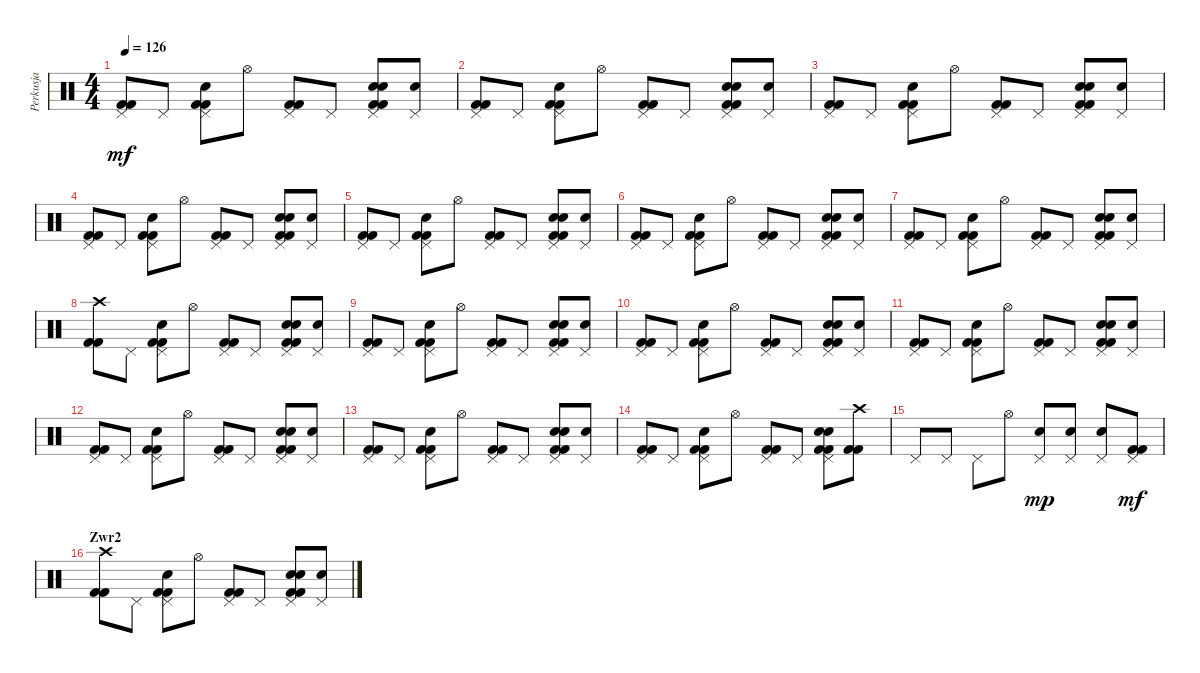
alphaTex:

\track ("Perkusja" "Perkusja") {instrument percussion}
\staff {score}
\articulation defaults
\ts (4 4)
\tempo 126
\clef neutral
\ks c
("Pedal Hi-Hat (hit)" "Kick (hit) 2" "Kick (hit) 2").8{dy mf} "Pedal Hi-Hat (hit)".8 ("Pedal Hi-Hat (hit)" "Snare (hit) 2" "Kick (hit) 2" "Kick (hit) 2").8 "Hi-Hat (open)".8 ("Pedal Hi-Hat (hit)" "Kick (hit) 2" "Kick (hit) 2").8 "Pedal Hi-Hat (hit)".8 ("Pedal Hi-Hat (hit)" "Hand Clap (hit)" "Snare (hit) 2" "Kick (hit) 2" "Kick (hit) 2").8 ("Pedal Hi-Hat (hit)" "Hand Clap (hit)").8 |
("Pedal Hi-Hat (hit)" "Kick (hit) 2" "Kick (hit) 2").8 "Pedal Hi-Hat (hit)".8 ("Pedal Hi-Hat (hit)" "Snare (hit) 2" "Kick (hit) 2" "Kick (hit) 2").8 "Hi-Hat (open)".8 ("Pedal Hi-Hat (hit)" "Kick (hit) 2" "Kick (hit) 2").8 "Pedal Hi-Hat (hit)".8 ("Pedal Hi-Hat (hit)" "Hand Clap (hit)" "Snare (hit) 2" "Kick (hit) 2" "Kick (hit) 2").8 ("Pedal Hi-Hat (hit)" "Hand Clap (hit)").8 |
("Pedal Hi-Hat (hit)" "Kick (hit) 2" "Kick (hit) 2").8 "Pedal Hi-Hat (hit)".8 ("Pedal Hi-Hat (hit)" "Snare (hit) 2" "Kick (hit) 2" "Kick (hit) 2").8 "Hi-Hat (open)".8 ("Pedal Hi-Hat (hit)" "Kick (hit) 2" "Kick (hit) 2").8 "Pedal Hi-Hat (hit)".8 ("Pedal Hi-Hat (hit)" "Hand Clap (hit)" "Snare (hit) 2" "Kick (hit) 2" "Kick (hit) 2").8 ("Pedal Hi-Hat (hit)" "Hand Clap (hit)").8 |
("Pedal Hi-Hat (hit)" "Kick (hit) 2" "Kick (hit) 2").8 "Pedal Hi-Hat (hit)".8 ("Pedal Hi-Hat (hit)" "Snare (hit) 2" "Kick (hit) 2" "Kick (hit) 2").8 "Hi-Hat (open)".8 ("Pedal Hi-Hat (hit)" "Kick (hit) 2" "Kick (hit) 2").8 "Pedal Hi-Hat (hit)".8 ("Pedal Hi-Hat (hit)" "Hand Clap (hit)" "Snare (hit) 2" "Kick (hit) 2" "Kick (hit) 2").8 ("Pedal Hi-Hat (hit)" "Hand Clap (hit)").8 |
("Pedal Hi-Hat (hit)" "Kick (hit) 2" "Kick (hit) 2").8 "Pedal Hi-Hat (hit)".8 ("Pedal Hi-Hat (hit)" "Snare (hit) 2" "Kick (hit) 2" "Kick (hit) 2").8 "Hi-Hat (open)".8 ("Pedal Hi-Hat (hit)" "Kick (hit) 2" "Kick (hit) 2").8 "Pedal Hi-Hat (hit)".8 ("Pedal Hi-Hat (hit)" "Hand Clap (hit)" "Snare (hit) 2" "Kick (hit) 2" "Kick (hit) 2").8 ("Pedal Hi-Hat (hit)" "Hand Clap (hit)").8 |
("Pedal Hi-Hat (hit)" "Kick (hit) 2" "Kick (hit) 2").8 "Pedal Hi-Hat (hit)".8 ("Pedal Hi-Hat (hit)" "Snare (hit) 2" "Kick (hit) 2" "Kick (hit) 2").8 "Hi-Hat (open)".8 ("Pedal Hi-Hat (hit)" "Kick (hit) 2" "Kick (hit) 2").8 "Pedal Hi-Hat (hit)".8 ("Pedal Hi-Hat (hit)" "Hand Clap (hit)" "Snare (hit) 2" "Kick (hit) 2" "Kick (hit) 2").8 ("Pedal Hi-Hat (hit)" "Hand Clap (hit)").8 |
("Pedal Hi-Hat (hit)" "Kick (hit) 2" "Kick (hit) 2").8 "Pedal Hi-Hat (hit)".8 ("Pedal Hi-Hat (hit)" "Snare (hit) 2" "Kick (hit) 2" "Kick (hit) 2").8 "Hi-Hat (open)".8 ("Pedal Hi-Hat (hit)" "Kick (hit) 2" "Kick (hit) 2").8 "Pedal Hi-Hat (hit)".8 ("Pedal Hi-Hat (hit)" "Hand Clap (hit)" "Snare (hit) 2" "Kick (hit) 2" "Kick (hit) 2").8 ("Pedal Hi-Hat (hit)" "Hand Clap (hit)").8 |
("Crash high (hit)" "Kick (hit) 2" "Kick (hit) 2").8 "Pedal Hi-Hat (hit)".8 ("Pedal Hi-Hat (hit)" "Snare (hit) 2" "Kick (hit) 2" "Kick (hit) 2").8 "Hi-Hat (open)".8 ("Pedal Hi-Hat (hit)" "Kick (hit) 2" "Kick (hit) 2").8 "Pedal Hi-Hat (hit)".8 ("Pedal Hi-Hat (hit)" "Hand Clap (hit)" "Snare (hit) 2" "Kick (hit) 2" "Kick (hit) 2").8 ("Pedal Hi-Hat (hit)" "Hand Clap (hit)").8 |
("Pedal Hi-Hat (hit)" "Kick (hit) 2" "Kick (hit) 2").8 "Pedal Hi-Hat (hit)".8 ("Pedal Hi-Hat (hit)" "Snare (hit) 2" "Kick (hit) 2" "Kick (hit) 2").8 "Hi-Hat (open)".8 ("Pedal Hi-Hat (hit)" "Kick (hit) 2" "Kick (hit) 2").8 "Pedal Hi-Hat (hit)".8 ("Pedal Hi-Hat (hit)" "Hand Clap (hit)" "Snare (hit) 2" "Kick (hit) 2" "Kick (hit) 2").8 ("Pedal Hi-Hat (hit)" "Hand Clap (hit)").8 |
("Pedal Hi-Hat (hit)" "Kick (hit) 2" "Kick (hit) 2").8 "Pedal Hi-Hat (hit)".8 ("Pedal Hi-Hat (hit)" "Snare (hit) 2" "Kick (hit) 2" "Kick (hit) 2").8 "Hi-Hat (open)".8 ("Pedal Hi-Hat (hit)" "Kick (hit) 2" "Kick (hit) 2").8 "Pedal Hi-Hat (hit)".8 ("Pedal Hi-Hat (hit)" "Hand Clap (hit)" "Snare (hit) 2" "Kick (hit) 2" "Kick (hit) 2").8 ("Pedal Hi-Hat (hit)" "Hand Clap (hit)").8 |
("Pedal Hi-Hat (hit)" "Kick (hit) 2" "Kick (hit) 2").8 "Pedal Hi-Hat (hit)".8 ("Pedal Hi-Hat (hit)" "Snare (hit) 2" "Kick (hit) 2" "Kick (hit) 2").8 "Hi-Hat (open)".8 ("Pedal Hi-Hat (hit)" "Kick (hit) 2" "Kick (hit) 2").8 "Pedal Hi-Hat (hit)".8 ("Pedal Hi-Hat (hit)" "Hand Clap (hit)" "Snare (hit) 2" "Kick (hit) 2" "Kick (hit) 2").8 ("Pedal Hi-Hat (hit)" "Hand Clap (hit)").8 |
("Pedal Hi-Hat (hit)" "Kick (hit) 2" "Kick (hit) 2").8 "Pedal Hi-Hat (hit)".8 ("Pedal Hi-Hat (hit)" "Snare (hit) 2" "Kick (hit) 2" "Kick (hit) 2").8 "Hi-Hat (open)".8 ("Pedal Hi-Hat (hit)" "Kick (hit) 2" "Kick (hit) 2").8 "Pedal Hi-Hat (hit)".8 ("Pedal Hi-Hat (hit)" "Hand Clap (hit)" "Snare (hit) 2" "Kick (hit) 2" "Kick (hit) 2").8 ("Pedal Hi-Hat (hit)" "Hand Clap (hit)").8 |
("Pedal Hi-Hat (hit)" "Kick (hit) 2" "Kick (hit) 2").8 "Pedal Hi-Hat (hit)".8 ("Pedal Hi-Hat (hit)" "Snare (hit) 2" "Kick (hit) 2" "Kick (hit) 2").8 "Hi-Hat (open)".8 ("Pedal Hi-Hat (hit)" "Kick (hit) 2" "Kick (hit) 2").8 "Pedal Hi-Hat (hit)".8 ("Pedal Hi-Hat (hit)" "Hand Clap (hit)" "Snare (hit) 2" "Kick (hit) 2" "Kick (hit) 2").8 ("Pedal Hi-Hat (hit)" "Hand Clap (hit)").8 |
("Pedal Hi-Hat (hit)" "Kick (hit) 2" "Kick (hit) 2").8 "Pedal Hi-Hat (hit)".8 ("Pedal Hi-Hat (hit)" "Snare (hit) 2" "Kick (hit) 2" "Kick (hit) 2").8 "Hi-Hat (open)".8 ("Pedal Hi-Hat (hit)" "Kick (hit) 2" "Kick (hit) 2").8 "Pedal Hi-Hat (hit)".8 ("Pedal Hi-Hat (hit)" "Hand Clap (hit)" "Snare (hit) 2" "Kick (hit) 2" "Kick (hit) 2").8 ("Crash high (hit)" "Kick (hit) 2" "Kick (hit) 2").8 |
"Pedal Hi-Hat (hit)".8 "Pedal Hi-Hat (hit)".8 "Pedal Hi-Hat (hit)".8 "Hi-Hat (open)".8 ("Pedal Hi-Hat (hit)" "Hand Clap (hit)").8{dy mp} ("Pedal Hi-Hat (hit)" "Hand Clap (hit)").8 ("Pedal Hi-Hat (hit)" "Hand Clap (hit)").8 ("Pedal Hi-Hat (hit)" "Kick (hit) 2" "Kick (hit) 2").8{dy mf} |
\section ("" "Zwr2")
("Crash high (hit)" "Kick (hit) 2" "Kick (hit) 2").8 "Pedal Hi-Hat (hit)".8 ("Pedal Hi-Hat (hit)" "Snare (hit) 2" "Kick (hit) 2" "Kick (hit) 2").8 "Hi-Hat (open)".8 ("Pedal Hi-Hat (hit)" "Kick (hit) 2" "Kick (hit) 2").8 "Pedal Hi-Hat (hit)".8 ("Pedal Hi-Hat (hit)" "Hand Clap (hit)" "Snare (hit) 2" "Kick (hit) 2" "Kick (hit) 2").8 ("Pedal Hi-Hat (hit)" "Hand Clap (hit)").8
